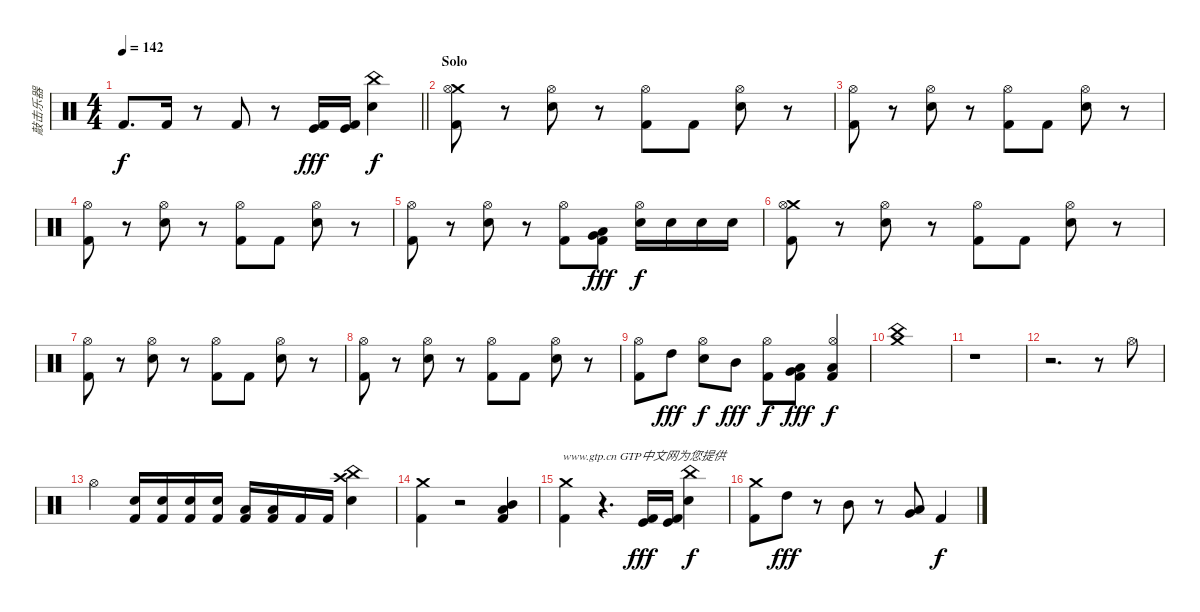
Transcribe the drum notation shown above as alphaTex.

\track ("敲击乐器" "敲击乐器") {instrument percussion}
\staff {score}
\articulation defaults
\ts (4 4)
\tempo 142
\clef neutral
\barLineRight lightlight
\ks c "Kick (hit) 2".8{d dy f} "Kick (hit) 2".16
r.8 "Kick (hit) 2".8 r.8 ("Kick (hit)" "Kick (hit) 2").16{dy fff} ("Kick (hit)" "Kick (hit) 2").16 ("Snare (hit) 2" "China (hit)").4{dy f} |
\section ("" "Solo")
("Crash medium (hit)" "Hi-Hat (open)" "Kick (hit) 2").8 r.8 ("Snare (hit) 2" "Hi-Hat (open)").8 r.8 ("Hi-Hat (open)" "Kick (hit) 2").8 "Kick (hit) 2".8 ("Snare (hit) 2" "Hi-Hat (open)").8 r.8 |
("Hi-Hat (open)" "Kick (hit) 2").8 r.8 ("Snare (hit) 2" "Hi-Hat (open)").8 r.8 ("Hi-Hat (open)" "Kick (hit) 2").8 "Kick (hit) 2".8 ("Snare (hit) 2" "Hi-Hat (open)").8 r.8 |
("Hi-Hat (open)" "Kick (hit) 2").8 r.8 ("Snare (hit) 2" "Hi-Hat (open)").8 r.8 ("Hi-Hat (open)" "Kick (hit) 2").8 "Kick (hit) 2".8 ("Snare (hit) 2" "Hi-Hat (open)").8 r.8 |
("Hi-Hat (open)" "Kick (hit) 2").8 r.8 ("Snare (hit) 2" "Hi-Hat (open)").8 r.8 ("Hi-Hat (open)" "Kick (hit) 2").8 ("Very Low Tom (hit)" "Low Floor Tom (hit)" "Kick (hit) 2").8{dy fff} ("Snare (hit) 2" "Hi-Hat (open)").16{dy f} "Snare (hit) 2".16 "Snare (hit) 2".16 "Snare (hit) 2".16 |
("Crash medium (hit)" "Hi-Hat (open)" "Kick (hit) 2").8 r.8 ("Snare (hit) 2" "Hi-Hat (open)").8 r.8 ("Hi-Hat (open)" "Kick (hit) 2").8 "Kick (hit) 2".8 ("Snare (hit) 2" "Hi-Hat (open)").8 r.8 |
("Hi-Hat (open)" "Kick (hit) 2").8 r.8 ("Snare (hit) 2" "Hi-Hat (open)").8 r.8 ("Hi-Hat (open)" "Kick (hit) 2").8 "Kick (hit) 2".8 ("Snare (hit) 2" "Hi-Hat (open)").8 r.8 |
("Hi-Hat (open)" "Kick (hit) 2").8 r.8 ("Snare (hit) 2" "Hi-Hat (open)").8 r.8 ("Hi-Hat (open)" "Kick (hit) 2").8 "Kick (hit) 2".8 ("Snare (hit) 2" "Hi-Hat (open)").8 r.8 |
("Hi-Hat (open)" "Kick (hit) 2").8 "High Tom (hit)".8{dy fff} ("Snare (hit) 2" "Hi-Hat (open)").8{dy f} "Mid Tom (hit)".8{dy fff} ("Hi-Hat (open)" "Kick (hit) 2").8{dy f} ("Very Low Tom (hit)" "Low Floor Tom (hit)" "Kick (hit) 2").8{dy fff} ("Low Floor Tom (hit)" "Hi-Hat (open)" "Kick (hit) 2").4{dy f} |
("Crash medium (hit)" "China (hit)").1 |
r.1 |
r.2{d} r.8 "Hi-Hat (open)".8 |
"Hi-Hat (open)".4 ("Snare (hit) 2" "Kick (hit) 2").16 ("Snare (hit) 2" "Kick (hit) 2").16 ("Snare (hit) 2" "Kick (hit) 2").16 ("Snare (hit) 2" "Kick (hit) 2").16 ("Low Tom (hit)" "Kick (hit) 2").16 ("Low Floor Tom (hit)" "Kick (hit) 2").16 "Kick (hit) 2".16 "Kick (hit) 2".16 ("Snare (hit) 2" "Crash high (hit)" "China (hit)").4 |
("Crash medium (hit)" "Kick (hit) 2").4 r.2 ("Mid Tom (hit)" "Low Tom (hit)" "Kick (hit) 2").4{txt "                    www.gtp.cn GTP中文网为您提供"} |
("Crash medium (hit)" "Kick (hit) 2").4 r.4{d} ("Kick (hit)" "Kick (hit) 2").16{dy fff} ("Kick (hit)" "Kick (hit) 2").16 ("Snare (hit) 2" "China (hit)").4{dy f} |
("Crash medium (hit)" "Kick (hit) 2").8 "High Tom (hit)".8{dy fff} r.8 "Mid Tom (hit)".8 r.8 ("Very Low Tom (hit)" "Low Floor Tom (hit)").8 "Kick (hit) 2".4{dy f}
